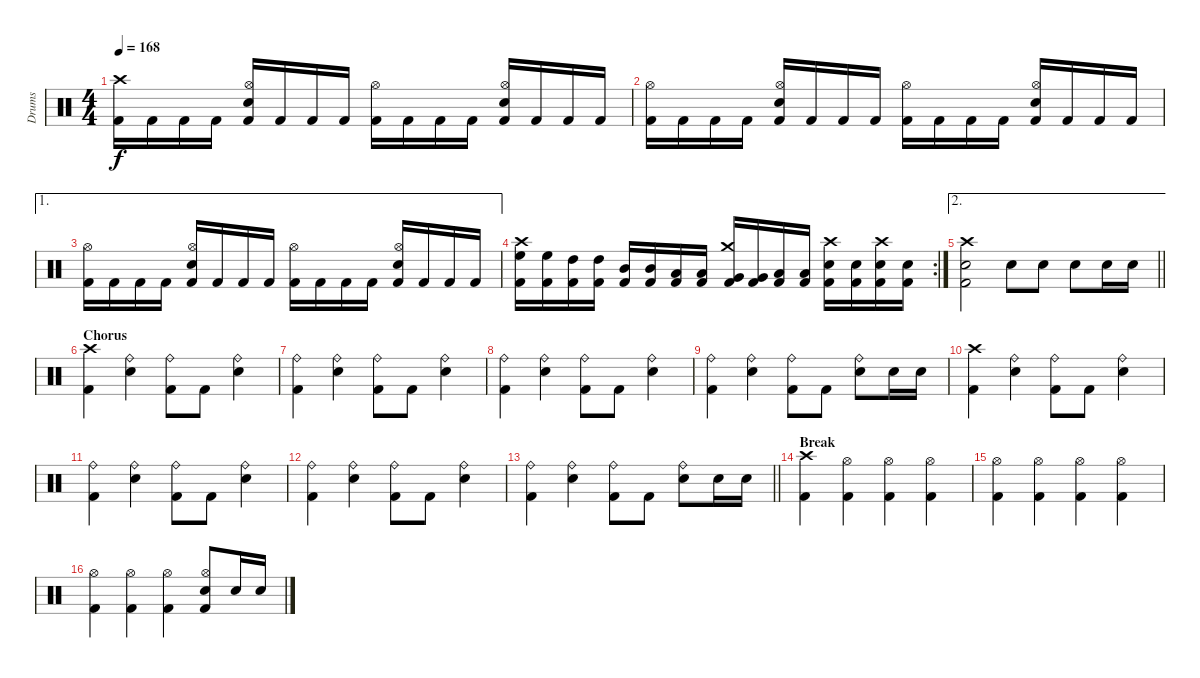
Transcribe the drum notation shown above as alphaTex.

\track ("Drums" "Drums") {instrument percussion}
\staff {score}
\articulation defaults
\ts (4 4)
\tempo 168
\clef neutral
\ks c
("Crash high (hit)" "Kick (hit) 2").16{dy f} "Kick (hit) 2".16 "Kick (hit) 2".16 "Kick (hit) 2".16 ("Hi-Hat (open)" "Electric Snare (hit)" "Kick (hit) 2").16 "Kick (hit) 2".16 "Kick (hit) 2".16 "Kick (hit) 2".16 ("Hi-Hat (open)" "Kick (hit) 2").16 "Kick (hit) 2".16 "Kick (hit) 2".16 "Kick (hit) 2".16 ("Hi-Hat (open)" "Electric Snare (hit)" "Kick (hit) 2").16 "Kick (hit) 2".16 "Kick (hit) 2".16 "Kick (hit) 2".16 |
("Hi-Hat (open)" "Kick (hit) 2").16 "Kick (hit) 2".16 "Kick (hit) 2".16 "Kick (hit) 2".16 ("Hi-Hat (open)" "Electric Snare (hit)" "Kick (hit) 2").16 "Kick (hit) 2".16 "Kick (hit) 2".16 "Kick (hit) 2".16 ("Hi-Hat (open)" "Kick (hit) 2").16 "Kick (hit) 2".16 "Kick (hit) 2".16 "Kick (hit) 2".16 ("Hi-Hat (open)" "Electric Snare (hit)" "Kick (hit) 2").16 "Kick (hit) 2".16 "Kick (hit) 2".16 "Kick (hit) 2".16 |
\ae 1
("Hi-Hat (open)" "Kick (hit) 2").16 "Kick (hit) 2".16 "Kick (hit) 2".16 "Kick (hit) 2".16 ("Hi-Hat (open)" "Electric Snare (hit)" "Kick (hit) 2").16 "Kick (hit) 2".16 "Kick (hit) 2".16 "Kick (hit) 2".16 ("Hi-Hat (open)" "Kick (hit) 2").16 "Kick (hit) 2".16 "Kick (hit) 2".16 "Kick (hit) 2".16 ("Hi-Hat (open)" "Electric Snare (hit)" "Kick (hit) 2").16 "Kick (hit) 2".16 "Kick (hit) 2".16 "Kick (hit) 2".16 |
\rc 2
("Crash high (hit)" "High Floor Tom (hit)" "Kick (hit) 2").16 ("High Floor Tom (hit)" "Kick (hit) 2").16 ("High Tom (hit)" "Kick (hit) 2").16 ("High Tom (hit)" "Kick (hit) 2").16 ("Mid Tom (hit)" "Kick (hit) 2").16 ("Mid Tom (hit)" "Kick (hit) 2").16 ("Low Tom (hit)" "Kick (hit) 2").16 ("Low Tom (hit)" "Kick (hit) 2").16 ("Crash medium (hit)" "Very Low Tom (hit)" "Kick (hit) 2").16 ("Very Low Tom (hit)" "Kick (hit) 2").16 ("Low Floor Tom (hit)" "Kick (hit) 2").16 ("Low Floor Tom (hit)" "Kick (hit) 2").16 ("Crash high (hit)" "Electric Snare (hit)" "Kick (hit) 2").16 ("Electric Snare (hit)" "Kick (hit) 2").16 ("Crash high (hit)" "Electric Snare (hit)" "Kick (hit) 2").16 ("Electric Snare (hit)" "Kick (hit) 2").16 |
\ae 2
\barLineRight lightlight
("Crash high (hit)" "Electric Snare (hit)" "Kick (hit) 2").2 "Electric Snare (hit)".8 "Electric Snare (hit)".8 "Electric Snare (hit)".8 "Electric Snare (hit)".16 "Electric Snare (hit)".16 |
\section ("" "Chorus")
("Crash high (hit)" "Kick (hit) 2").4 ("Ride (bell)" "Electric Snare (hit)").4 ("Ride (bell)" "Kick (hit) 2").8 "Kick (hit) 2".8 ("Ride (bell)" "Electric Snare (hit)").4 |
("Ride (bell)" "Kick (hit) 2").4 ("Ride (bell)" "Electric Snare (hit)").4 ("Ride (bell)" "Kick (hit) 2").8 "Kick (hit) 2".8 ("Ride (bell)" "Electric Snare (hit)").4 |
("Ride (bell)" "Kick (hit) 2").4 ("Ride (bell)" "Electric Snare (hit)").4 ("Ride (bell)" "Kick (hit) 2").8 "Kick (hit) 2".8 ("Ride (bell)" "Electric Snare (hit)").4 |
("Ride (bell)" "Kick (hit) 2").4 ("Ride (bell)" "Electric Snare (hit)").4 ("Ride (bell)" "Kick (hit) 2").8 "Kick (hit) 2".8 ("Ride (bell)" "Electric Snare (hit)").8 "Electric Snare (hit)".16 "Electric Snare (hit)".16 |
("Crash high (hit)" "Kick (hit) 2").4 ("Ride (bell)" "Electric Snare (hit)").4 ("Ride (bell)" "Kick (hit) 2").8 "Kick (hit) 2".8 ("Ride (bell)" "Electric Snare (hit)").4 |
("Ride (bell)" "Kick (hit) 2").4 ("Ride (bell)" "Electric Snare (hit)").4 ("Ride (bell)" "Kick (hit) 2").8 "Kick (hit) 2".8 ("Ride (bell)" "Electric Snare (hit)").4 |
("Ride (bell)" "Kick (hit) 2").4 ("Ride (bell)" "Electric Snare (hit)").4 ("Ride (bell)" "Kick (hit) 2").8 "Kick (hit) 2".8 ("Ride (bell)" "Electric Snare (hit)").4 |
\barLineRight lightlight
("Ride (bell)" "Kick (hit) 2").4 ("Ride (bell)" "Electric Snare (hit)").4 ("Ride (bell)" "Kick (hit) 2").8 "Kick (hit) 2".8 ("Ride (bell)" "Electric Snare (hit)").8 "Electric Snare (hit)".16 "Electric Snare (hit)".16 |
\section ("" "Break")
("Crash high (hit)" "Kick (hit) 2").4 ("Hi-Hat (open)" "Kick (hit) 2").4 ("Hi-Hat (open)" "Kick (hit) 2").4 ("Hi-Hat (open)" "Kick (hit) 2").4 |
("Hi-Hat (open)" "Kick (hit) 2").4 ("Hi-Hat (open)" "Kick (hit) 2").4 ("Hi-Hat (open)" "Kick (hit) 2").4 ("Hi-Hat (open)" "Kick (hit) 2").4 |
("Hi-Hat (open)" "Kick (hit) 2").4 ("Hi-Hat (open)" "Kick (hit) 2").4 ("Hi-Hat (open)" "Kick (hit) 2").4 ("Hi-Hat (open)" "Electric Snare (hit)" "Kick (hit) 2").8 "Electric Snare (hit)".16 "Electric Snare (hit)".16
